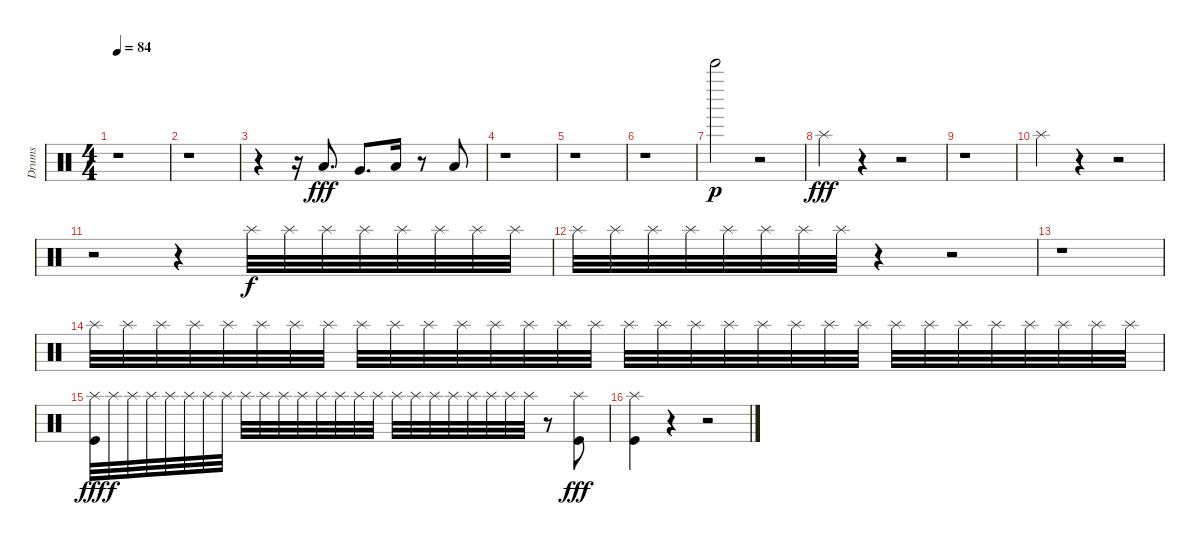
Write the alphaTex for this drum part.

\track ("Drums" "Drums") {instrument percussion}
\staff {score}
\articulation defaults
\ts (4 4)
\tempo 84
\clef neutral
\ks c
r.1{dy fff} |
r.1 |
r.4 r.16 "Low Tom (hit)".8{d} "Very Low Tom (hit)".8{d} "Low Floor Tom (hit)".16 r.8 "Low Floor Tom (hit)".8 |
r.1 |
r.1 |
r.1 |
"Bell Tree (hit)".2{dy p} r.2 |
"Splash (hit)".4{dy fff} r.4 r.2 |
r.1 |
"Splash (hit)".4 r.4 r.2 |
r.2 r.4 "Splash (hit)".32{dy f volume 9} "Splash (hit)".32 "Splash (hit)".32 "Splash (hit)".32 "Splash (hit)".32 "Splash (hit)".32 "Splash (hit)".32 "Splash (hit)".32 |
"Splash (hit)".32 "Splash (hit)".32 "Splash (hit)".32 "Splash (hit)".32 "Splash (hit)".32 "Splash (hit)".32 "Splash (hit)".32 "Splash (hit)".32 r.4 r.2 |
r.1 |
"Splash (hit)".32 "Splash (hit)".32 "Splash (hit)".32 "Splash (hit)".32 "Splash (hit)".32 "Splash (hit)".32 "Splash (hit)".32 "Splash (hit)".32 "Splash (hit)".32 "Splash (hit)".32 "Splash (hit)".32 "Splash (hit)".32 "Splash (hit)".32 "Splash (hit)".32 "Splash (hit)".32 "Splash (hit)".32 "Splash (hit)".32 "Splash (hit)".32 "Splash (hit)".32 "Splash (hit)".32 "Splash (hit)".32 "Splash (hit)".32 "Splash (hit)".32 "Splash (hit)".32 "Splash (hit)".32 "Splash (hit)".32 "Splash (hit)".32 "Splash (hit)".32 "Splash (hit)".32 "Splash (hit)".32 "Splash (hit)".32 "Splash (hit)".32 |
("Splash (hit)" "Kick (hit)").32{dy fff} "Splash (hit)".32{dy f} "Splash (hit)".32 "Splash (hit)".32 "Splash (hit)".32 "Splash (hit)".32 "Splash (hit)".32 "Splash (hit)".32 "Splash (hit)".32 "Splash (hit)".32 "Splash (hit)".32 "Splash (hit)".32 "Splash (hit)".32 "Splash (hit)".32 "Splash (hit)".32 "Splash (hit)".32 "Splash (hit)".32 "Splash (hit)".32 "Splash (hit)".32 "Splash (hit)".32 "Splash (hit)".32 "Splash (hit)".32 "Splash (hit)".32 "Splash (hit)".32 r.8 ("Splash (hit)" "Kick (hit)").8{dy fff} |
("Splash (hit)" "Kick (hit)").4 r.4 r.2
